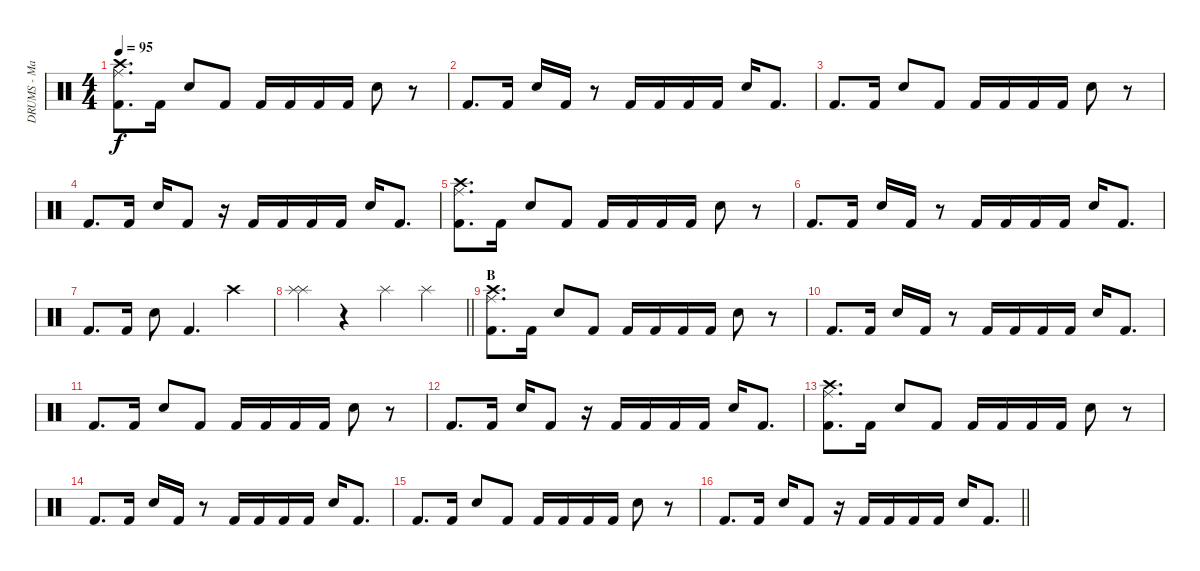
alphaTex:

\track ("DRUMS - Mario Duplantier" "DRUMS - Ma") {instrument percussion}
\staff {score}
\articulation defaults
\ts (4 4)
\tempo 95
\clef neutral
\ks c
("Crash high (hit)" "Ride (middle)" "Kick (hit) 2").8{d dy f} "Kick (hit) 2".16 "Electric Snare (hit)".8 "Kick (hit) 2".8 "Kick (hit) 2".16 "Kick (hit) 2".16 "Kick (hit) 2".16 "Kick (hit) 2".16 "Electric Snare (hit)".8 r.8 |
"Kick (hit) 2".8{d} "Kick (hit) 2".16 "Electric Snare (hit)".16 "Kick (hit) 2".16 r.8 "Kick (hit) 2".16 "Kick (hit) 2".16 "Kick (hit) 2".16 "Kick (hit) 2".16 "Electric Snare (hit)".16 "Kick (hit) 2".8{d} |
"Kick (hit) 2".8{d} "Kick (hit) 2".16 "Electric Snare (hit)".8 "Kick (hit) 2".8 "Kick (hit) 2".16 "Kick (hit) 2".16 "Kick (hit) 2".16 "Kick (hit) 2".16 "Electric Snare (hit)".8 r.8 |
"Kick (hit) 2".8{d} "Kick (hit) 2".16 "Electric Snare (hit)".16 "Kick (hit) 2".8 r.16 "Kick (hit) 2".16 "Kick (hit) 2".16 "Kick (hit) 2".16 "Kick (hit) 2".16 "Electric Snare (hit)".16 "Kick (hit) 2".8{d} |
("Crash high (hit)" "Ride (middle)" "Kick (hit) 2").8{d} "Kick (hit) 2".16 "Electric Snare (hit)".8 "Kick (hit) 2".8 "Kick (hit) 2".16 "Kick (hit) 2".16 "Kick (hit) 2".16 "Kick (hit) 2".16 "Electric Snare (hit)".8 r.8 |
"Kick (hit) 2".8{d} "Kick (hit) 2".16 "Electric Snare (hit)".16 "Kick (hit) 2".16 r.8 "Kick (hit) 2".16 "Kick (hit) 2".16 "Kick (hit) 2".16 "Kick (hit) 2".16 "Electric Snare (hit)".16 "Kick (hit) 2".8{d} |
"Kick (hit) 2".8{d} "Kick (hit) 2".16 "Electric Snare (hit)".8 "Kick (hit) 2".4{d} "Crash high (hit)".4 |
\barLineRight lightlight
("Splash (hit)" "Splash (hit)").4 r.4 "Splash (hit)".4 "Splash (hit)".4 |
\section ("" "B")
("Crash high (hit)" "Ride (middle)" "Kick (hit) 2").8{d} "Kick (hit) 2".16 "Electric Snare (hit)".8 "Kick (hit) 2".8 "Kick (hit) 2".16 "Kick (hit) 2".16 "Kick (hit) 2".16 "Kick (hit) 2".16 "Electric Snare (hit)".8 r.8 |
"Kick (hit) 2".8{d} "Kick (hit) 2".16 "Electric Snare (hit)".16 "Kick (hit) 2".16 r.8 "Kick (hit) 2".16 "Kick (hit) 2".16 "Kick (hit) 2".16 "Kick (hit) 2".16 "Electric Snare (hit)".16 "Kick (hit) 2".8{d} |
"Kick (hit) 2".8{d} "Kick (hit) 2".16 "Electric Snare (hit)".8 "Kick (hit) 2".8 "Kick (hit) 2".16 "Kick (hit) 2".16 "Kick (hit) 2".16 "Kick (hit) 2".16 "Electric Snare (hit)".8 r.8 |
"Kick (hit) 2".8{d} "Kick (hit) 2".16 "Electric Snare (hit)".16 "Kick (hit) 2".8 r.16 "Kick (hit) 2".16 "Kick (hit) 2".16 "Kick (hit) 2".16 "Kick (hit) 2".16 "Electric Snare (hit)".16 "Kick (hit) 2".8{d} |
("Crash high (hit)" "Ride (middle)" "Kick (hit) 2").8{d} "Kick (hit) 2".16 "Electric Snare (hit)".8 "Kick (hit) 2".8 "Kick (hit) 2".16 "Kick (hit) 2".16 "Kick (hit) 2".16 "Kick (hit) 2".16 "Electric Snare (hit)".8 r.8 |
"Kick (hit) 2".8{d} "Kick (hit) 2".16 "Electric Snare (hit)".16 "Kick (hit) 2".16 r.8 "Kick (hit) 2".16 "Kick (hit) 2".16 "Kick (hit) 2".16 "Kick (hit) 2".16 "Electric Snare (hit)".16 "Kick (hit) 2".8{d} |
"Kick (hit) 2".8{d} "Kick (hit) 2".16 "Electric Snare (hit)".8 "Kick (hit) 2".8 "Kick (hit) 2".16 "Kick (hit) 2".16 "Kick (hit) 2".16 "Kick (hit) 2".16 "Electric Snare (hit)".8 r.8 |
\barLineRight lightlight "Kick (hit) 2".8{d} "Kick (hit) 2".16 "Electric Snare (hit)".16 "Kick (hit) 2".8
r.16 "Kick (hit) 2".16 "Kick (hit) 2".16 "Kick (hit) 2".16 "Kick (hit) 2".16 "Electric Snare (hit)".16 "Kick (hit) 2".8{d}
